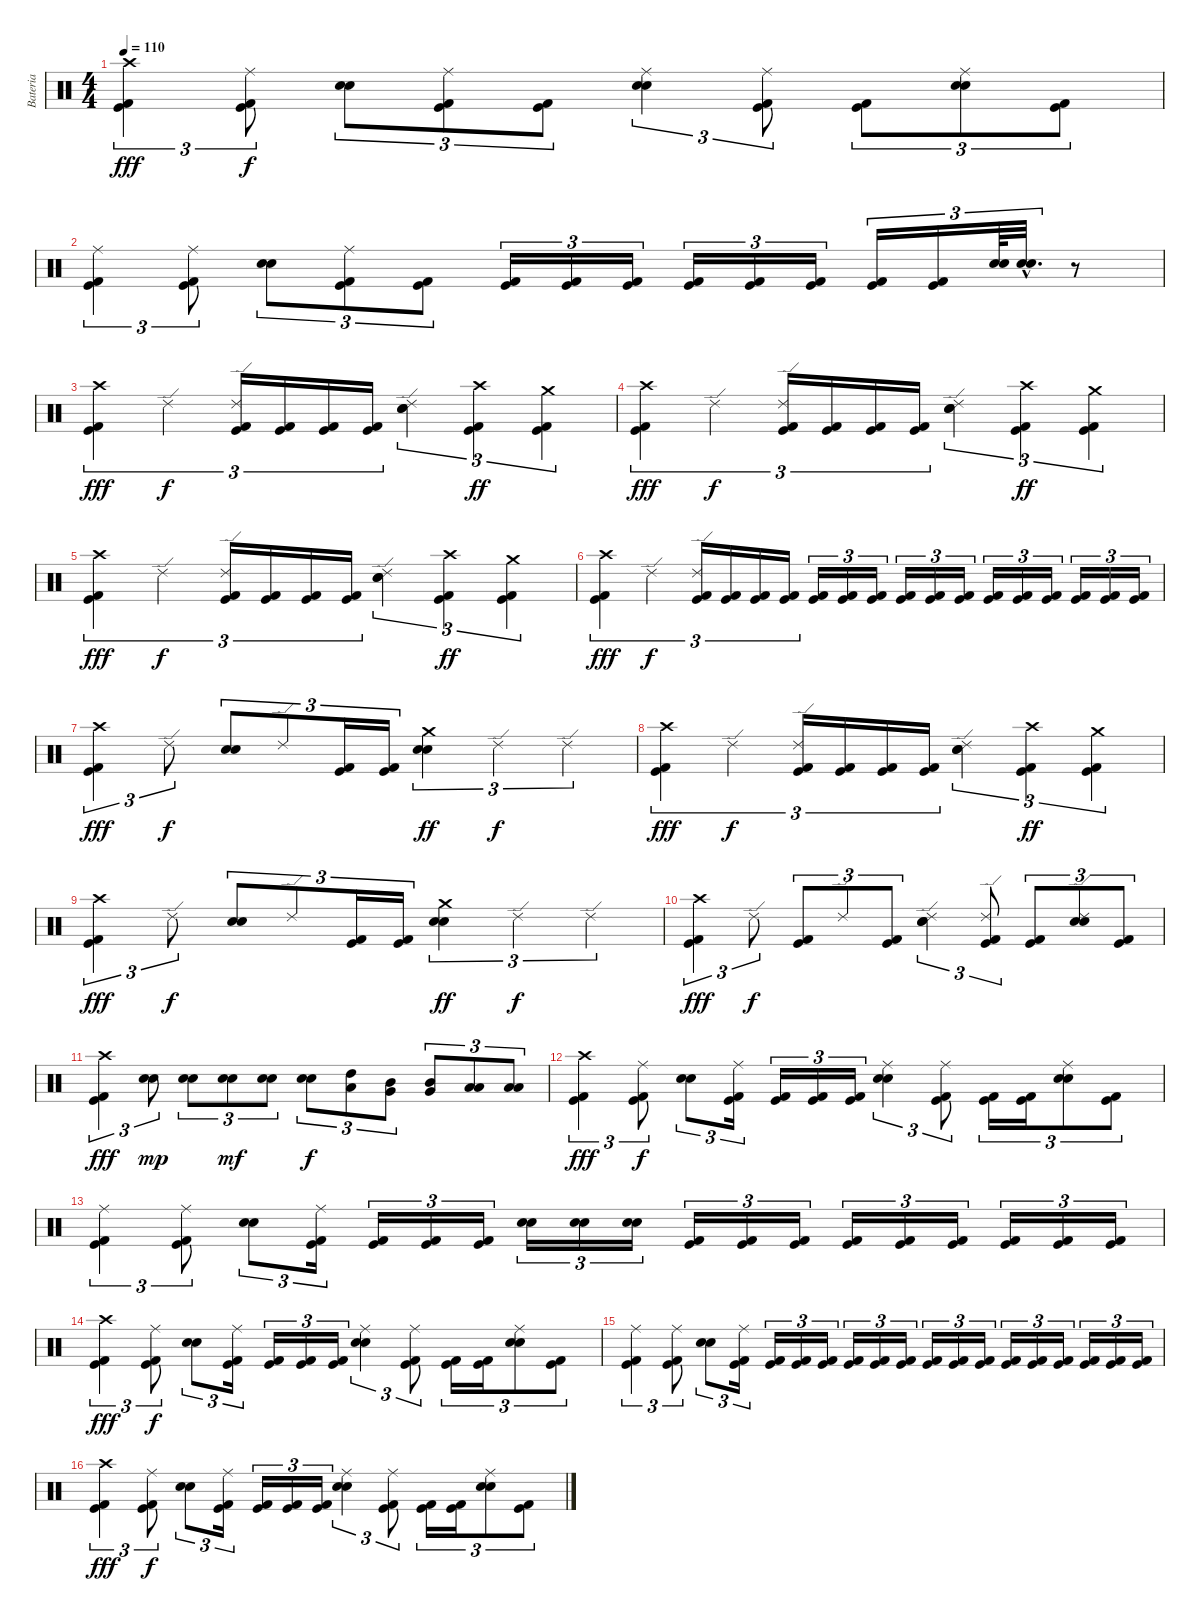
\track ("Bateria" "Bateria") {instrument percussion}
\staff {score}
\articulation defaults
\ts (4 4)
\tempo 110
\clef neutral
\ks c
("Crash high (hit)" "Kick (hit) 2" "Kick (hit)").4{tu (3 2) dy fff} ("Ride (middle)" "Kick (hit) 2" "Kick (hit)").8{tu (3 2) dy f} ("Electric Snare (hit)" "Snare (hit) 2").8{tu (3 2)} ("Ride (middle)" "Kick (hit) 2" "Kick (hit)").8{tu (3 2)} ("Kick (hit) 2" "Kick (hit)").8{tu (3 2)} ("Ride (middle)" "Electric Snare (hit)" "Snare (hit) 2").4{tu (3 2)} ("Ride (middle)" "Kick (hit) 2" "Kick (hit)").8{tu (3 2)} ("Kick (hit) 2" "Kick (hit)").8{tu (3 2)} ("Ride (middle)" "Electric Snare (hit)" "Snare (hit) 2").8{tu (3 2)} ("Kick (hit) 2" "Kick (hit)").8{tu (3 2)} |
("Ride (middle)" "Kick (hit) 2" "Kick (hit)").4{tu (3 2)} ("Ride (middle)" "Kick (hit) 2" "Kick (hit)").8{tu (3 2)} ("Electric Snare (hit)" "Snare (hit) 2").8{tu (3 2)} ("Ride (middle)" "Kick (hit) 2" "Kick (hit)").8{tu (3 2)} ("Kick (hit) 2" "Kick (hit)").8{tu (3 2)} ("Kick (hit) 2" "Kick (hit)").16{tu (3 2)} ("Kick (hit) 2" "Kick (hit)").16{tu (3 2)} ("Kick (hit) 2" "Kick (hit)").16{tu (3 2)} ("Kick (hit) 2" "Kick (hit)").16{tu (3 2)} ("Kick (hit) 2" "Kick (hit)").16{tu (3 2)} ("Kick (hit) 2" "Kick (hit)").16{tu (3 2)} ("Kick (hit) 2" "Kick (hit)").16{tu (3 2)} ("Kick (hit) 2" "Kick (hit)").16{tu (3 2)} ("Electric Snare (hit)" "Snare (hit) 2").64{tu (3 2)} ("Electric Snare (hit)"{hac} "Snare (hit) 2"{hac}).32{d tu (3 2)} r.8 |
("Crash high (hit)" "Kick (hit) 2" "Kick (hit)").4{tu (3 2) dy fff} "Ride (edge) 2".4{tu (3 2) dy f} ("Ride (edge) 2" "Kick (hit) 2" "Kick (hit)").16{tu (3 2)} ("Kick (hit) 2" "Kick (hit)").16{tu (3 2)} ("Kick (hit) 2" "Kick (hit)").16{tu (3 2)} ("Kick (hit) 2" "Kick (hit)").16{tu (3 2)} ("Ride (edge) 2" "Electric Snare (hit)" "Snare (hit) 2").4{tu (3 2)} ("Crash high (hit)" "Kick (hit) 2" "Kick (hit)").4{tu (3 2) dy ff} ("Crash medium (hit)" "Kick (hit) 2" "Kick (hit)").4{tu (3 2)} |
("Crash high (hit)" "Kick (hit) 2" "Kick (hit)").4{tu (3 2) dy fff} "Ride (edge) 2".4{tu (3 2) dy f} ("Ride (edge) 2" "Kick (hit) 2" "Kick (hit)").16{tu (3 2)} ("Kick (hit) 2" "Kick (hit)").16{tu (3 2)} ("Kick (hit) 2" "Kick (hit)").16{tu (3 2)} ("Kick (hit) 2" "Kick (hit)").16{tu (3 2)} ("Ride (edge) 2" "Electric Snare (hit)" "Snare (hit) 2").4{tu (3 2)} ("Crash high (hit)" "Kick (hit) 2" "Kick (hit)").4{tu (3 2) dy ff} ("Crash medium (hit)" "Kick (hit) 2" "Kick (hit)").4{tu (3 2)} |
("Crash high (hit)" "Kick (hit) 2" "Kick (hit)").4{tu (3 2) dy fff} "Ride (edge) 2".4{tu (3 2) dy f} ("Ride (edge) 2" "Kick (hit) 2" "Kick (hit)").16{tu (3 2)} ("Kick (hit) 2" "Kick (hit)").16{tu (3 2)} ("Kick (hit) 2" "Kick (hit)").16{tu (3 2)} ("Kick (hit) 2" "Kick (hit)").16{tu (3 2)} ("Ride (edge) 2" "Electric Snare (hit)" "Snare (hit) 2").4{tu (3 2)} ("Crash high (hit)" "Kick (hit) 2" "Kick (hit)").4{tu (3 2) dy ff} ("Crash medium (hit)" "Kick (hit) 2" "Kick (hit)").4{tu (3 2)} |
("Crash high (hit)" "Kick (hit) 2" "Kick (hit)").4{tu (3 2) dy fff} "Ride (edge) 2".4{tu (3 2) dy f} ("Ride (edge) 2" "Kick (hit) 2" "Kick (hit)").16{tu (3 2)} ("Kick (hit) 2" "Kick (hit)").16{tu (3 2)} ("Kick (hit) 2" "Kick (hit)").16{tu (3 2)} ("Kick (hit) 2" "Kick (hit)").16{tu (3 2)} ("Kick (hit) 2" "Kick (hit)").16{tu (3 2)} ("Kick (hit) 2" "Kick (hit)").16{tu (3 2)} ("Kick (hit) 2" "Kick (hit)").16{tu (3 2)} ("Kick (hit) 2" "Kick (hit)").16{tu (3 2)} ("Kick (hit) 2" "Kick (hit)").16{tu (3 2)} ("Kick (hit) 2" "Kick (hit)").16{tu (3 2)} ("Kick (hit) 2" "Kick (hit)").16{tu (3 2)} ("Kick (hit) 2" "Kick (hit)").16{tu (3 2)} ("Kick (hit) 2" "Kick (hit)").16{tu (3 2)} ("Kick (hit) 2" "Kick (hit)").16{tu (3 2)} ("Kick (hit) 2" "Kick (hit)").16{tu (3 2)} ("Kick (hit) 2" "Kick (hit)").16{tu (3 2)} |
("Crash high (hit)" "Kick (hit) 2" "Kick (hit)").4{tu (3 2) dy fff} "Ride (edge) 2".8{tu (3 2) dy f} ("Electric Snare (hit)" "Snare (hit) 2").8{tu (3 2)} "Ride (edge) 2".8{tu (3 2)} ("Kick (hit) 2" "Kick (hit)").16{tu (3 2)} ("Kick (hit) 2" "Kick (hit)").16{tu (3 2)} ("Crash medium (hit)" "Electric Snare (hit)" "Snare (hit) 2").4{tu (3 2) dy ff} "Ride (edge) 2".4{tu (3 2) dy f} "Ride (edge) 2".4{tu (3 2)} |
("Crash high (hit)" "Kick (hit) 2" "Kick (hit)").4{tu (3 2) dy fff} "Ride (edge) 2".4{tu (3 2) dy f} ("Ride (edge) 2" "Kick (hit) 2" "Kick (hit)").16{tu (3 2)} ("Kick (hit) 2" "Kick (hit)").16{tu (3 2)} ("Kick (hit) 2" "Kick (hit)").16{tu (3 2)} ("Kick (hit) 2" "Kick (hit)").16{tu (3 2)} ("Ride (edge) 2" "Electric Snare (hit)" "Snare (hit) 2").4{tu (3 2)} ("Crash high (hit)" "Kick (hit) 2" "Kick (hit)").4{tu (3 2) dy ff} ("Crash medium (hit)" "Kick (hit) 2" "Kick (hit)").4{tu (3 2)} |
("Crash high (hit)" "Kick (hit) 2" "Kick (hit)").4{tu (3 2) dy fff} "Ride (edge) 2".8{tu (3 2) dy f} ("Electric Snare (hit)" "Snare (hit) 2").8{tu (3 2)} "Ride (edge) 2".8{tu (3 2)} ("Kick (hit) 2" "Kick (hit)").16{tu (3 2)} ("Kick (hit) 2" "Kick (hit)").16{tu (3 2)} ("Crash medium (hit)" "Electric Snare (hit)" "Snare (hit) 2").4{tu (3 2) dy ff} "Ride (edge) 2".4{tu (3 2) dy f} "Ride (edge) 2".4{tu (3 2)} |
("Crash high (hit)" "Kick (hit) 2" "Kick (hit)").4{tu (3 2) dy fff} "Ride (edge) 2".8{tu (3 2) dy f} ("Kick (hit) 2" "Kick (hit)").8{tu (3 2)} "Ride (edge) 2".8{tu (3 2)} ("Kick (hit) 2" "Kick (hit)").8{tu (3 2)} ("Ride (edge) 2" "Electric Snare (hit)" "Snare (hit) 2").4{tu (3 2)} ("Ride (edge) 2" "Kick (hit) 2" "Kick (hit)").8{tu (3 2)} ("Kick (hit) 2" "Kick (hit)").8{tu (3 2)} ("Ride (edge) 2" "Electric Snare (hit)" "Snare (hit) 2").8{tu (3 2)} ("Kick (hit) 2" "Kick (hit)").8{tu (3 2)} |
("Crash high (hit)" "Kick (hit) 2" "Kick (hit)").4{tu (3 2) dy fff} ("Electric Snare (hit)" "Snare (hit) 2").8{tu (3 2) dy mp} ("Electric Snare (hit)" "Snare (hit) 2").8{tu (3 2)} ("Electric Snare (hit)" "Snare (hit) 2").8{tu (3 2) dy mf} ("Electric Snare (hit)" "Snare (hit) 2").8{tu (3 2)} ("Electric Snare (hit)" "Snare (hit) 2").8{tu (3 2) dy f} ("High Tom (hit)" "Low Tom (hit)").8{tu (3 2)} ("Mid Tom (hit)" "Very Low Tom (hit)").8{tu (3 2)} ("Mid Tom (hit)" "Very Low Tom (hit)").8{tu (3 2)} ("Low Tom (hit)" "Low Floor Tom (hit)").8{tu (3 2)} ("Low Tom (hit)" "Low Floor Tom (hit)").8{tu (3 2)} |
("Crash high (hit)" "Kick (hit) 2" "Kick (hit)").4{tu (3 2) dy fff} ("Ride (middle)" "Kick (hit) 2" "Kick (hit)").8{tu (3 2) dy f} ("Electric Snare (hit)" "Snare (hit) 2").8{tu (3 2)} ("Ride (middle)" "Kick (hit) 2" "Kick (hit)").16{tu (3 2)} ("Kick (hit) 2" "Kick (hit)").16{tu (3 2)} ("Kick (hit) 2" "Kick (hit)").16{tu (3 2)} ("Kick (hit) 2" "Kick (hit)").16{tu (3 2)} ("Ride (middle)" "Electric Snare (hit)" "Snare (hit) 2").4{tu (3 2)} ("Ride (middle)" "Kick (hit) 2" "Kick (hit)").8{tu (3 2)} ("Kick (hit) 2" "Kick (hit)").16{tu (3 2)} ("Kick (hit) 2" "Kick (hit)").16{tu (3 2)} ("Ride (middle)" "Electric Snare (hit)" "Snare (hit) 2").8{tu (3 2)} ("Kick (hit) 2" "Kick (hit)").8{tu (3 2)} |
("Ride (middle)" "Kick (hit) 2" "Kick (hit)").4{tu (3 2)} ("Ride (middle)" "Kick (hit) 2" "Kick (hit)").8{tu (3 2)} ("Electric Snare (hit)" "Snare (hit) 2").8{tu (3 2)} ("Ride (middle)" "Kick (hit) 2" "Kick (hit)").16{tu (3 2)} ("Kick (hit) 2" "Kick (hit)").16{tu (3 2)} ("Kick (hit) 2" "Kick (hit)").16{tu (3 2)} ("Kick (hit) 2" "Kick (hit)").16{tu (3 2)} ("Electric Snare (hit)" "Snare (hit) 2").16{tu (3 2)} ("Electric Snare (hit)" "Snare (hit) 2").16{tu (3 2)} ("Electric Snare (hit)" "Snare (hit) 2").16{tu (3 2)} ("Kick (hit) 2" "Kick (hit)").16{tu (3 2)} ("Kick (hit) 2" "Kick (hit)").16{tu (3 2)} ("Kick (hit) 2" "Kick (hit)").16{tu (3 2)} ("Kick (hit) 2" "Kick (hit)").16{tu (3 2)} ("Kick (hit) 2" "Kick (hit)").16{tu (3 2)} ("Kick (hit) 2" "Kick (hit)").16{tu (3 2)} ("Kick (hit) 2" "Kick (hit)").16{tu (3 2)} ("Kick (hit) 2" "Kick (hit)").16{tu (3 2)} ("Kick (hit) 2" "Kick (hit)").16{tu (3 2)} |
("Crash high (hit)" "Kick (hit) 2" "Kick (hit)").4{tu (3 2) dy fff} ("Ride (middle)" "Kick (hit) 2" "Kick (hit)").8{tu (3 2) dy f} ("Electric Snare (hit)" "Snare (hit) 2").8{tu (3 2)} ("Ride (middle)" "Kick (hit) 2" "Kick (hit)").16{tu (3 2)} ("Kick (hit) 2" "Kick (hit)").16{tu (3 2)} ("Kick (hit) 2" "Kick (hit)").16{tu (3 2)} ("Kick (hit) 2" "Kick (hit)").16{tu (3 2)} ("Ride (middle)" "Electric Snare (hit)" "Snare (hit) 2").4{tu (3 2)} ("Ride (middle)" "Kick (hit) 2" "Kick (hit)").8{tu (3 2)} ("Kick (hit) 2" "Kick (hit)").16{tu (3 2)} ("Kick (hit) 2" "Kick (hit)").16{tu (3 2)} ("Ride (middle)" "Electric Snare (hit)" "Snare (hit) 2").8{tu (3 2)} ("Kick (hit) 2" "Kick (hit)").8{tu (3 2)} |
("Ride (middle)" "Kick (hit) 2" "Kick (hit)").4{tu (3 2)} ("Ride (middle)" "Kick (hit) 2" "Kick (hit)").8{tu (3 2)} ("Electric Snare (hit)" "Snare (hit) 2").8{tu (3 2)} ("Ride (middle)" "Kick (hit) 2" "Kick (hit)").16{tu (3 2)} ("Kick (hit) 2" "Kick (hit)").16{tu (3 2)} ("Kick (hit) 2" "Kick (hit)").16{tu (3 2)} ("Kick (hit) 2" "Kick (hit)").16{tu (3 2)} ("Kick (hit) 2" "Kick (hit)").16{tu (3 2)} ("Kick (hit) 2" "Kick (hit)").16{tu (3 2)} ("Kick (hit) 2" "Kick (hit)").16{tu (3 2)} ("Kick (hit) 2" "Kick (hit)").16{tu (3 2)} ("Kick (hit) 2" "Kick (hit)").16{tu (3 2)} ("Kick (hit) 2" "Kick (hit)").16{tu (3 2)} ("Kick (hit) 2" "Kick (hit)").16{tu (3 2)} ("Kick (hit) 2" "Kick (hit)").16{tu (3 2)} ("Kick (hit) 2" "Kick (hit)").16{tu (3 2)} ("Kick (hit) 2" "Kick (hit)").16{tu (3 2)} ("Kick (hit) 2" "Kick (hit)").16{tu (3 2)} ("Kick (hit) 2" "Kick (hit)").16{tu (3 2)} |
("Crash high (hit)" "Kick (hit) 2" "Kick (hit)").4{tu (3 2) dy fff} ("Ride (middle)" "Kick (hit) 2" "Kick (hit)").8{tu (3 2) dy f} ("Electric Snare (hit)" "Snare (hit) 2").8{tu (3 2)} ("Ride (middle)" "Kick (hit) 2" "Kick (hit)").16{tu (3 2)} ("Kick (hit) 2" "Kick (hit)").16{tu (3 2)} ("Kick (hit) 2" "Kick (hit)").16{tu (3 2)} ("Kick (hit) 2" "Kick (hit)").16{tu (3 2)} ("Ride (middle)" "Electric Snare (hit)" "Snare (hit) 2").4{tu (3 2)} ("Ride (middle)" "Kick (hit) 2" "Kick (hit)").8{tu (3 2)} ("Kick (hit) 2" "Kick (hit)").16{tu (3 2)} ("Kick (hit) 2" "Kick (hit)").16{tu (3 2)} ("Ride (middle)" "Electric Snare (hit)" "Snare (hit) 2").8{tu (3 2)} ("Kick (hit) 2" "Kick (hit)").8{tu (3 2)}
